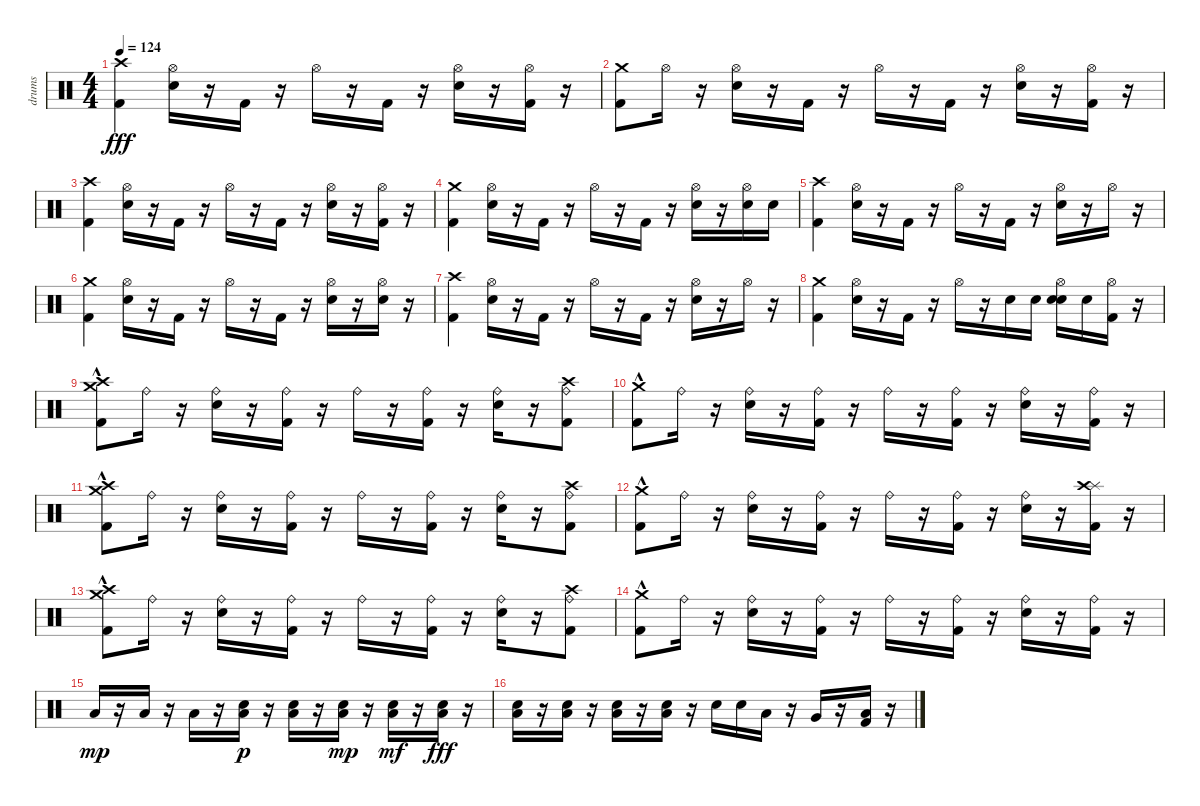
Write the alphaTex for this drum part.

\track ("drums" "drums") {instrument percussion}
\staff {score}
\articulation defaults
\ts (4 4)
\tempo 124
\clef neutral
\ks c
("Kick (hit) 2" "Crash high (hit)").4{dy fff} ("Snare (hit) 2" "Hi-Hat (open)").16 r.16 "Kick (hit) 2".16 r.16 "Hi-Hat (open)".16 r.16 "Kick (hit) 2".16 r.16 ("Snare (hit) 2" "Hi-Hat (open)").16 r.16 ("Hi-Hat (open)" "Kick (hit) 2").16 r.16 |
("Kick (hit) 2" "Crash medium (hit)").8 "Hi-Hat (open)".16 r.16 ("Snare (hit) 2" "Hi-Hat (open)").16 r.16 "Kick (hit) 2".16 r.16 "Hi-Hat (open)".16 r.16 "Kick (hit) 2".16 r.16 ("Snare (hit) 2" "Hi-Hat (open)").16 r.16 ("Kick (hit) 2" "Hi-Hat (open)").16 r.16 |
("Kick (hit) 2" "Crash high (hit)").4 ("Snare (hit) 2" "Hi-Hat (open)").16 r.16 "Kick (hit) 2".16 r.16 "Hi-Hat (open)".16 r.16 "Kick (hit) 2".16 r.16 ("Snare (hit) 2" "Hi-Hat (open)").16 r.16 ("Hi-Hat (open)" "Kick (hit) 2").16 r.16 |
("Kick (hit) 2" "Crash medium (hit)").4 ("Snare (hit) 2" "Hi-Hat (open)").16 r.16 "Kick (hit) 2".16 r.16 "Hi-Hat (open)".16 r.16 "Kick (hit) 2".16 r.16 ("Snare (hit) 2" "Hi-Hat (open)").16 r.16 ("Hi-Hat (open)" "Snare (hit) 2").16 "Snare (hit) 2".16 |
("Kick (hit) 2" "Crash high (hit)").4 ("Snare (hit) 2" "Hi-Hat (open)").16 r.16 "Kick (hit) 2".16 r.16 "Hi-Hat (open)".16 r.16 "Kick (hit) 2".16 r.16 ("Snare (hit) 2" "Hi-Hat (open)").16 r.16 "Hi-Hat (open)".16 r.16 |
("Kick (hit) 2" "Crash medium (hit)").4 ("Snare (hit) 2" "Hi-Hat (open)").16 r.16 "Kick (hit) 2".16 r.16 "Hi-Hat (open)".16 r.16 "Kick (hit) 2".16 r.16 ("Snare (hit) 2" "Hi-Hat (open)").16 r.16 ("Hi-Hat (open)" "Snare (hit) 2").16 r.16 |
("Kick (hit) 2" "Crash high (hit)").4 ("Snare (hit) 2" "Hi-Hat (open)").16 r.16 "Kick (hit) 2".16 r.16 "Hi-Hat (open)".16 r.16 "Kick (hit) 2".16 r.16 ("Hi-Hat (open)" "Snare (hit) 2").16 r.16 "Hi-Hat (open)".16 r.16 |
("Kick (hit) 2" "Crash medium (hit)").4 ("Snare (hit) 2" "Hi-Hat (open)").16 r.16 "Kick (hit) 2".16 r.16 "Hi-Hat (open)".16 r.16 "Snare (hit) 2".16 "Snare (hit) 2".16 ("Snare (hit) 2" "Snare (hit) 2" "Hi-Hat (open)").16 "Snare (hit) 2".16 ("Hi-Hat (open)" "Kick (hit) 2").16 r.16 |
("Crash medium (hit)"{hac} "Crash high (hit)"{hac} "Kick (hit) 2").8 "Ride (bell)".16 r.16 ("Snare (hit) 2" "Ride (bell)").16 r.16 ("Kick (hit) 2" "Ride (bell)").16 r.16 "Ride (bell)".16 r.16 ("Kick (hit) 2" "Ride (bell)").16 r.16 ("Snare (hit) 2" "Ride (bell)").16 r.16 ("Crash high (hit)" "Kick (hit) 2" "Ride (bell)").8 |
("Crash medium (hit)"{hac} "Kick (hit) 2").8 "Ride (bell)".16 r.16 ("Snare (hit) 2" "Ride (bell)").16 r.16 ("Kick (hit) 2" "Ride (bell)").16 r.16 "Ride (bell)".16 r.16 ("Kick (hit) 2" "Ride (bell)").16 r.16 ("Snare (hit) 2" "Ride (bell)").16 r.16 ("Kick (hit) 2" "Ride (bell)").16 r.16 |
("Crash medium (hit)"{hac} "Crash high (hit)"{hac} "Kick (hit) 2").8 "Ride (bell)".16 r.16 ("Snare (hit) 2" "Ride (bell)").16 r.16 ("Kick (hit) 2" "Ride (bell)").16 r.16 "Ride (bell)".16 r.16 ("Kick (hit) 2" "Ride (bell)").16 r.16 ("Snare (hit) 2" "Ride (bell)").16 r.16 ("Crash high (hit)" "Kick (hit) 2" "Ride (bell)").8 |
("Crash medium (hit)"{hac} "Kick (hit) 2").8 "Ride (bell)".16 r.16 ("Snare (hit) 2" "Ride (bell)").16 r.16 ("Kick (hit) 2" "Ride (bell)").16 r.16 "Ride (bell)".16 r.16 ("Kick (hit) 2" "Ride (bell)").16 r.16 ("Snare (hit) 2" "Ride (bell)").16 r.16 ("Kick (hit) 2" "Splash (hit)" "Crash high (hit)").16 r.16 |
("Crash medium (hit)"{hac} "Crash high (hit)"{hac} "Kick (hit) 2").8 "Ride (bell)".16 r.16 ("Snare (hit) 2" "Ride (bell)").16 r.16 ("Kick (hit) 2" "Ride (bell)").16 r.16 "Ride (bell)".16 r.16 ("Kick (hit) 2" "Ride (bell)").16 r.16 ("Snare (hit) 2" "Ride (bell)").16 r.16 ("Crash high (hit)" "Kick (hit) 2" "Ride (bell)").8 |
("Crash medium (hit)"{hac} "Kick (hit) 2").8 "Ride (bell)".16 r.16 ("Snare (hit) 2" "Ride (bell)").16 r.16 ("Kick (hit) 2" "Ride (bell)").16 r.16 "Ride (bell)".16 r.16 ("Kick (hit) 2" "Ride (bell)").16 r.16 ("Snare (hit) 2" "Ride (bell)").16 r.16 ("Kick (hit) 2" "Ride (bell)").16 r.16 |
"Low Floor Tom (hit)".16{dy mp} r.16 "Low Floor Tom (hit)".16 r.16 "Low Floor Tom (hit)".16 r.16 ("Low Floor Tom (hit)" "Snare (hit) 2").16{dy p} r.16 ("Low Floor Tom (hit)" "Snare (hit) 2").16 r.16 ("Snare (hit) 2" "Low Floor Tom (hit)").16{dy mp} r.16 ("Snare (hit) 2" "Low Floor Tom (hit)").16{dy mf} r.16 ("Snare (hit) 2" "Low Floor Tom (hit)").16{dy fff} r.16 |
("Snare (hit) 2" "Low Floor Tom (hit)").16 r.16 ("Snare (hit) 2" "Low Floor Tom (hit)").16 r.16 ("Snare (hit) 2" "Low Floor Tom (hit)").16 r.16 ("Snare (hit) 2" "Low Floor Tom (hit)").16 r.16 "Snare (hit) 2".16 "Snare (hit) 2".16 "Low Tom (hit)".16 r.16 "Very Low Tom (hit)".16 r.16 ("Kick (hit) 2" "Low Floor Tom (hit)").16 r.16
